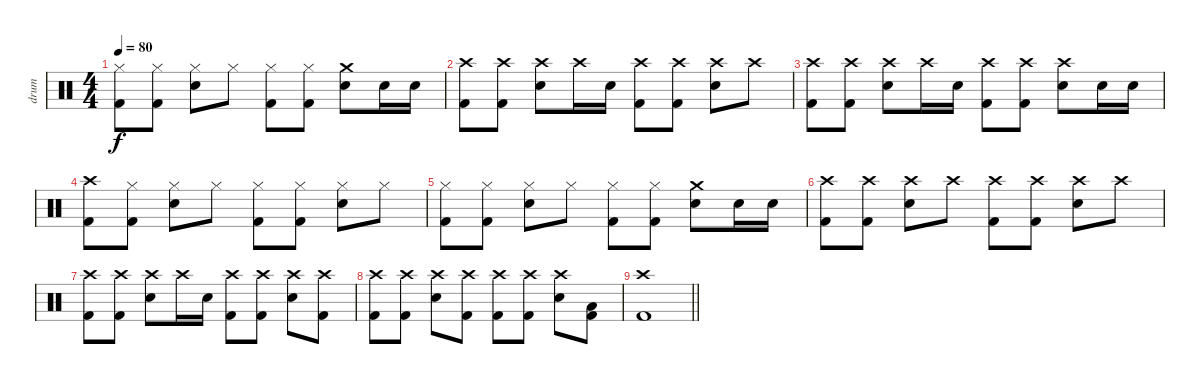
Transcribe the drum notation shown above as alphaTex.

\track ("drum" "drum") {instrument percussion}
\staff {score}
\articulation defaults
\ts (4 4)
\tempo 80
\clef neutral
\ks c
("Hi-Hat (closed)" "Kick (hit) 2").8{dy f} ("Hi-Hat (closed)" "Kick (hit) 2").8 ("Hi-Hat (closed)" "Snare (hit) 2").8 "Hi-Hat (closed)".8 ("Hi-Hat (closed)" "Kick (hit) 2").8 ("Hi-Hat (closed)" "Kick (hit) 2").8 ("Crash medium (hit)" "Snare (hit) 2").8 "Snare (hit) 2".16 "Snare (hit) 2".16 |
("Crash high (hit)" "Kick (hit) 2").8 ("Crash high (hit)" "Kick (hit) 2").8 ("Crash high (hit)" "Snare (hit) 2").8 "Crash high (hit)".16 "Snare (hit) 2".16 ("Crash high (hit)" "Kick (hit) 2").8 ("Crash high (hit)" "Kick (hit) 2").8 ("Crash high (hit)" "Snare (hit) 2").8 "Crash high (hit)".8 |
("Crash high (hit)" "Kick (hit) 2").8 ("Crash high (hit)" "Kick (hit) 2").8 ("Crash high (hit)" "Snare (hit) 2").8 "Crash high (hit)".16 "Snare (hit) 2".16 ("Crash high (hit)" "Kick (hit) 2").8 ("Crash high (hit)" "Kick (hit) 2").8 ("Crash high (hit)" "Snare (hit) 2").8 "Snare (hit) 2".16 "Snare (hit) 2".16 |
("Crash high (hit)" "Kick (hit) 2").8 ("Hi-Hat (closed)" "Kick (hit) 2").8 ("Hi-Hat (closed)" "Snare (hit) 2").8 "Hi-Hat (closed)".8 ("Hi-Hat (closed)" "Kick (hit) 2").8 ("Hi-Hat (closed)" "Kick (hit) 2").8 ("Hi-Hat (closed)" "Snare (hit) 2").8 "Hi-Hat (closed)".8 |
("Hi-Hat (closed)" "Kick (hit) 2").8 ("Hi-Hat (closed)" "Kick (hit) 2").8 ("Hi-Hat (closed)" "Snare (hit) 2").8 "Hi-Hat (closed)".8 ("Hi-Hat (closed)" "Kick (hit) 2").8 ("Hi-Hat (closed)" "Kick (hit) 2").8 ("Crash medium (hit)" "Snare (hit) 2").8 "Snare (hit) 2".16 "Snare (hit) 2".16 |
("Crash high (hit)" "Kick (hit) 2").8 ("Crash high (hit)" "Kick (hit) 2").8 ("Crash high (hit)" "Snare (hit) 2").8 "Crash high (hit)".8 ("Crash high (hit)" "Kick (hit) 2").8 ("Crash high (hit)" "Kick (hit) 2").8 ("Crash high (hit)" "Snare (hit) 2").8 "Crash high (hit)".8 |
("Crash high (hit)" "Kick (hit) 2").8 ("Crash high (hit)" "Kick (hit) 2").8 ("Crash high (hit)" "Snare (hit) 2").8 "Crash high (hit)".16 "Snare (hit) 2".16 ("Crash high (hit)" "Kick (hit) 2").8 ("Crash high (hit)" "Kick (hit) 2").8 ("Crash high (hit)" "Snare (hit) 2").8 ("Crash high (hit)" "Kick (hit) 2").8 |
("Crash high (hit)" "Kick (hit) 2").8 ("Crash high (hit)" "Kick (hit) 2").8 ("Crash high (hit)" "Snare (hit) 2").8 ("Crash high (hit)" "Kick (hit) 2").8 ("Crash high (hit)" "Kick (hit) 2").8 ("Crash high (hit)" "Kick (hit) 2").8 ("Crash high (hit)" "Snare (hit) 2").8 ("Low Floor Tom (hit)" "Kick (hit) 2").8 |
\barLineRight lightlight
("Crash high (hit)" "Kick (hit) 2").1
